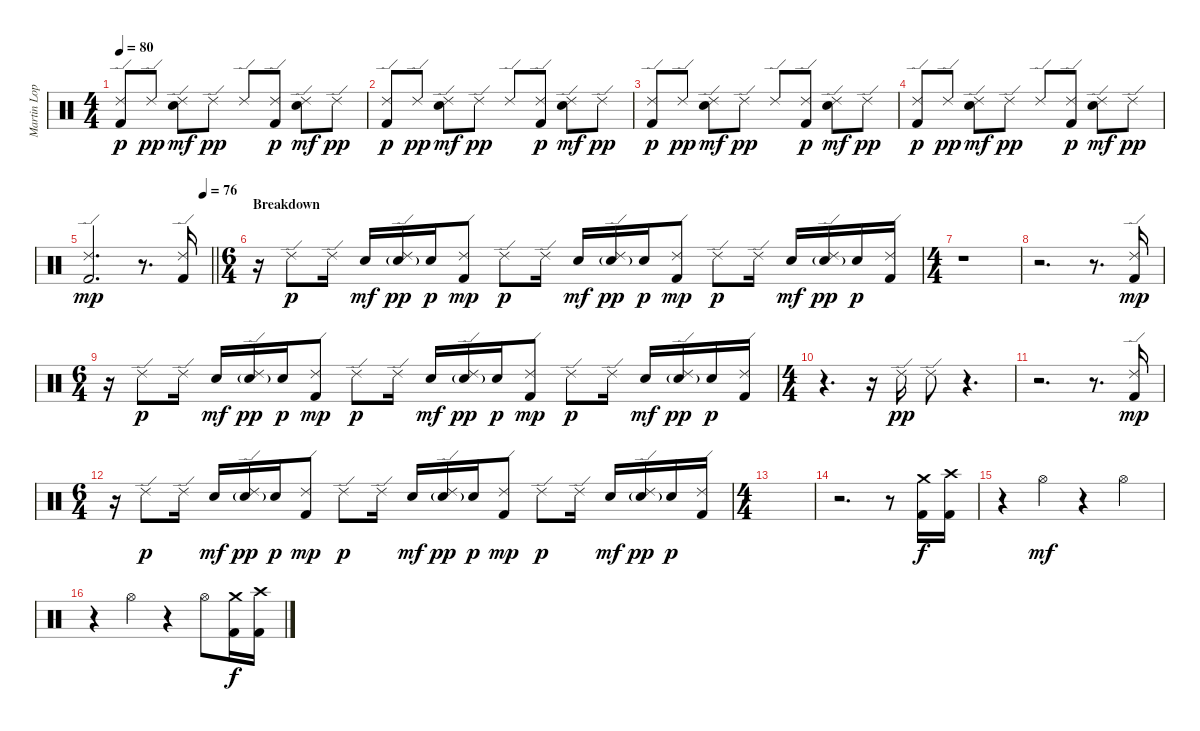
\track ("Martin Lopez" "Martin Lop") {instrument percussion}
\staff {score}
\articulation defaults
\ts (4 4)
\tempo 80
\clef neutral
\ks c
("Ride (edge) 2" "Kick (hit) 2").8{dy p} "Ride (edge) 2".8{dy pp} ("Ride (edge) 2" "Snare (hit) 2").8{dy mf} "Ride (edge) 2".8{dy pp} "Ride (edge) 2".8 ("Ride (edge) 2" "Kick (hit) 2").8{dy p} ("Ride (edge) 2" "Snare (hit) 2").8{dy mf} "Ride (edge) 2".8{dy pp} |
("Ride (edge) 2" "Kick (hit) 2").8{dy p} "Ride (edge) 2".8{dy pp} ("Ride (edge) 2" "Snare (hit) 2").8{dy mf} "Ride (edge) 2".8{dy pp} "Ride (edge) 2".8 ("Ride (edge) 2" "Kick (hit) 2").8{dy p} ("Ride (edge) 2" "Snare (hit) 2").8{dy mf} "Ride (edge) 2".8{dy pp} |
("Ride (edge) 2" "Kick (hit) 2").8{dy p} "Ride (edge) 2".8{dy pp} ("Ride (edge) 2" "Snare (hit) 2").8{dy mf} "Ride (edge) 2".8{dy pp} "Ride (edge) 2".8 ("Ride (edge) 2" "Kick (hit) 2").8{dy p} ("Ride (edge) 2" "Snare (hit) 2").8{dy mf} "Ride (edge) 2".8{dy pp} |
("Ride (edge) 2" "Kick (hit) 2").8{dy p} "Ride (edge) 2".8{dy pp} ("Ride (edge) 2" "Snare (hit) 2").8{dy mf} "Ride (edge) 2".8{dy pp} "Ride (edge) 2".8 ("Ride (edge) 2" "Kick (hit) 2").8{dy p} ("Ride (edge) 2" "Snare (hit) 2").8{dy mf} "Ride (edge) 2".8{dy pp} |
\tempo (76 0.9375)
\barLineRight lightlight
("Ride (edge) 2" "Kick (hit) 2").2{d dy mp} r.8{d} ("Ride (edge) 2" "Kick (hit) 2").16 |
\ts (6 4)
\section ("" "Breakdown")
r.16 "Ride (edge) 2".8{dy p} "Ride (edge) 2".16 "Snare (hit) 2".16{dy mf} ("Ride (edge) 2" "Electric Snare (hit)"{g}).16{dy pp} "Electric Snare (hit)".16{dy p} ("Ride (edge) 2" "Kick (hit) 2").8{dy mp} "Ride (edge) 2".8{dy p} "Ride (edge) 2".16 "Snare (hit) 2".16{dy mf} ("Ride (edge) 2" "Electric Snare (hit)"{g}).16{dy pp} "Electric Snare (hit)".16{dy p} ("Ride (edge) 2" "Kick (hit) 2").8{dy mp} "Ride (edge) 2".8{dy p} "Ride (edge) 2".16 "Snare (hit) 2".16{dy mf} ("Ride (edge) 2" "Electric Snare (hit)"{g}).16{dy pp} "Electric Snare (hit)".16{dy p} ("Ride (edge) 2" "Kick (hit) 2").16 |
\ts (4 4)
r.1 |
r.2{d} r.8{d} ("Ride (edge) 2" "Kick (hit) 2").16{dy mp} |
\ts (6 4)
r.16 "Ride (edge) 2".8{dy p} "Ride (edge) 2".16 "Snare (hit) 2".16{dy mf} ("Ride (edge) 2" "Electric Snare (hit)"{g}).16{dy pp} "Electric Snare (hit)".16{dy p} ("Ride (edge) 2" "Kick (hit) 2").8{dy mp} "Ride (edge) 2".8{dy p} "Ride (edge) 2".16 "Snare (hit) 2".16{dy mf} ("Ride (edge) 2" "Electric Snare (hit)"{g}).16{dy pp} "Electric Snare (hit)".16{dy p} ("Ride (edge) 2" "Kick (hit) 2").8{dy mp} "Ride (edge) 2".8{dy p} "Ride (edge) 2".16 "Snare (hit) 2".16{dy mf} ("Ride (edge) 2" "Electric Snare (hit)"{g}).16{dy pp} "Electric Snare (hit)".16{dy p} ("Ride (edge) 2" "Kick (hit) 2").16 |
\ts (4 4)
r.4{d} r.16 "Ride (edge) 2".16{dy pp} "Ride (edge) 2".8 r.4{d} |
r.2{d} r.8{d} ("Ride (edge) 2" "Kick (hit) 2").16{dy mp} |
\ts (6 4)
r.16 "Ride (edge) 2".8{dy p} "Ride (edge) 2".16 "Snare (hit) 2".16{dy mf} ("Ride (edge) 2" "Electric Snare (hit)"{g}).16{dy pp} "Electric Snare (hit)".16{dy p} ("Ride (edge) 2" "Kick (hit) 2").8{dy mp} "Ride (edge) 2".8{dy p} "Ride (edge) 2".16 "Snare (hit) 2".16{dy mf} ("Ride (edge) 2" "Electric Snare (hit)"{g}).16{dy pp} "Electric Snare (hit)".16{dy p} ("Ride (edge) 2" "Kick (hit) 2").8{dy mp} "Ride (edge) 2".8{dy p} "Ride (edge) 2".16 "Snare (hit) 2".16{dy mf} ("Ride (edge) 2" "Electric Snare (hit)"{g}).16{dy pp} "Electric Snare (hit)".16{dy p} ("Ride (edge) 2" "Kick (hit) 2").16 |
\ts (4 4)
|
r.2{d volume 13} r.8 ("Crash medium (hit)" "Kick (hit) 2").16{dy f} ("Crash high (hit)" "Kick (hit) 2").16 |
r.4 "Hi-Hat (open)".4{dy mf} r.4 "Hi-Hat (open)".4 |
r.4 "Hi-Hat (open)".4 r.4 "Hi-Hat (open)".8 ("Crash medium (hit)" "Kick (hit) 2").16{dy f} ("Crash high (hit)" "Kick (hit) 2").16
